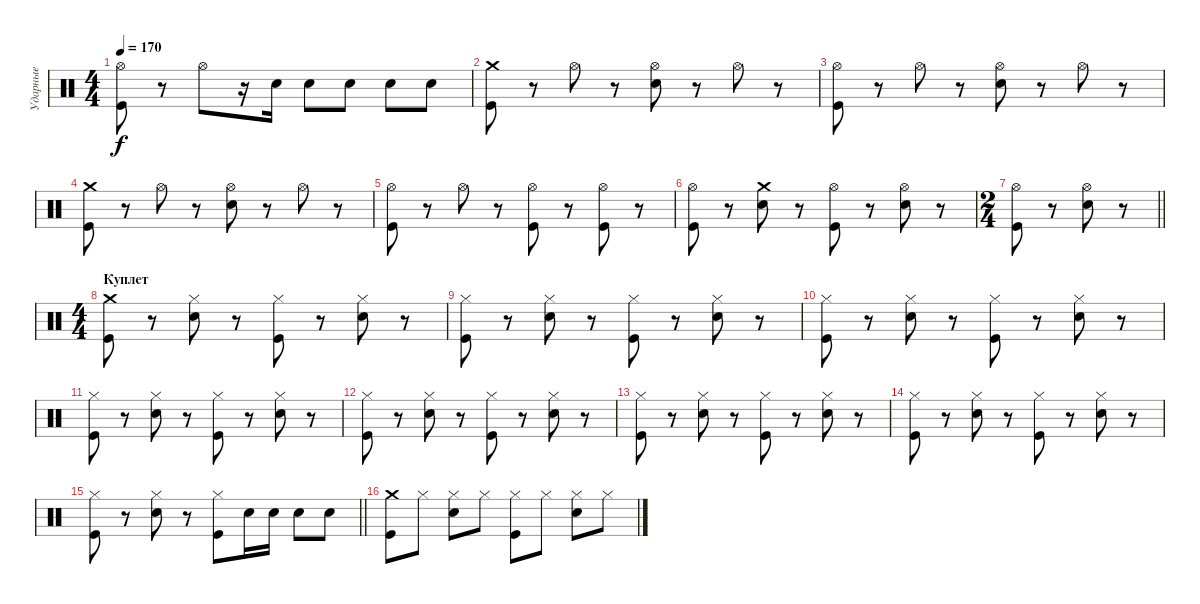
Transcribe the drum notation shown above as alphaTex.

\track ("Ударные" "Ударные") {instrument percussion}
\staff {score}
\articulation defaults
\ts (4 4)
\tempo 170
\clef neutral
\ks c
("Hi-Hat (open)" "Kick (hit)").8{dy f} r.8 "Hi-Hat (open)".8 r.16 "Electric Snare (hit)".16 "Electric Snare (hit)".8 "Electric Snare (hit)".8 "Electric Snare (hit)".8 "Electric Snare (hit)".8 |
("Crash medium (hit)" "Kick (hit)").8 r.8 "Hi-Hat (open)".8 r.8 ("Hi-Hat (open)" "Electric Snare (hit)").8 r.8 "Hi-Hat (open)".8 r.8 |
("Hi-Hat (open)" "Kick (hit)").8 r.8 "Hi-Hat (open)".8 r.8 ("Hi-Hat (open)" "Electric Snare (hit)").8 r.8 "Hi-Hat (open)".8 r.8 |
("Crash medium (hit)" "Kick (hit)").8 r.8 "Hi-Hat (open)".8 r.8 ("Hi-Hat (open)" "Electric Snare (hit)").8 r.8 "Hi-Hat (open)".8 r.8 |
("Hi-Hat (open)" "Kick (hit)").8 r.8 "Hi-Hat (open)".8 r.8 ("Hi-Hat (open)" "Kick (hit)").8 r.8 ("Hi-Hat (open)" "Kick (hit)").8 r.8 |
("Hi-Hat (open)" "Kick (hit)").8 r.8 ("Crash medium (hit)" "Electric Snare (hit)").8 r.8 ("Hi-Hat (open)" "Kick (hit)").8 r.8 ("Hi-Hat (open)" "Electric Snare (hit)").8 r.8 |
\ts (2 4)
\barLineRight lightlight
("Hi-Hat (open)" "Kick (hit)").8 r.8 ("Hi-Hat (open)" "Electric Snare (hit)").8 r.8 |
\ts (4 4)
\section ("" "Куплет")
("Crash medium (hit)" "Kick (hit)").8 r.8 ("Hi-Hat (closed)" "Electric Snare (hit)").8 r.8 ("Hi-Hat (closed)" "Kick (hit)").8 r.8 ("Hi-Hat (closed)" "Electric Snare (hit)").8 r.8 |
("Hi-Hat (closed)" "Kick (hit)").8 r.8 ("Hi-Hat (closed)" "Electric Snare (hit)").8 r.8 ("Hi-Hat (closed)" "Kick (hit)").8 r.8 ("Hi-Hat (closed)" "Electric Snare (hit)").8 r.8 |
("Hi-Hat (closed)" "Kick (hit)").8 r.8 ("Hi-Hat (closed)" "Electric Snare (hit)").8 r.8 ("Hi-Hat (closed)" "Kick (hit)").8 r.8 ("Hi-Hat (closed)" "Electric Snare (hit)").8 r.8 |
("Hi-Hat (closed)" "Kick (hit)").8 r.8 ("Hi-Hat (closed)" "Electric Snare (hit)").8 r.8 ("Hi-Hat (closed)" "Kick (hit)").8 r.8 ("Hi-Hat (closed)" "Electric Snare (hit)").8 r.8 |
("Hi-Hat (closed)" "Kick (hit)").8 r.8 ("Hi-Hat (closed)" "Electric Snare (hit)").8 r.8 ("Hi-Hat (closed)" "Kick (hit)").8 r.8 ("Hi-Hat (closed)" "Electric Snare (hit)").8 r.8 |
("Hi-Hat (closed)" "Kick (hit)").8 r.8 ("Hi-Hat (closed)" "Electric Snare (hit)").8 r.8 ("Hi-Hat (closed)" "Kick (hit)").8 r.8 ("Hi-Hat (closed)" "Electric Snare (hit)").8 r.8 |
("Hi-Hat (closed)" "Kick (hit)").8 r.8 ("Hi-Hat (closed)" "Electric Snare (hit)").8 r.8 ("Hi-Hat (closed)" "Kick (hit)").8 r.8 ("Hi-Hat (closed)" "Electric Snare (hit)").8 r.8 |
\barLineRight lightlight
("Hi-Hat (closed)" "Kick (hit)").8 r.8 ("Hi-Hat (closed)" "Electric Snare (hit)").8 r.8 ("Hi-Hat (closed)" "Kick (hit)").8 "Electric Snare (hit)".16 "Electric Snare (hit)".16 "Electric Snare (hit)".8 "Electric Snare (hit)".8 |
\section ("" " ")
("Crash medium (hit)" "Kick (hit)").8 "Hi-Hat (closed)".8 ("Hi-Hat (closed)" "Electric Snare (hit)").8 "Hi-Hat (closed)".8 ("Hi-Hat (closed)" "Kick (hit)").8 "Hi-Hat (closed)".8 ("Hi-Hat (closed)" "Electric Snare (hit)").8 "Hi-Hat (closed)".8
